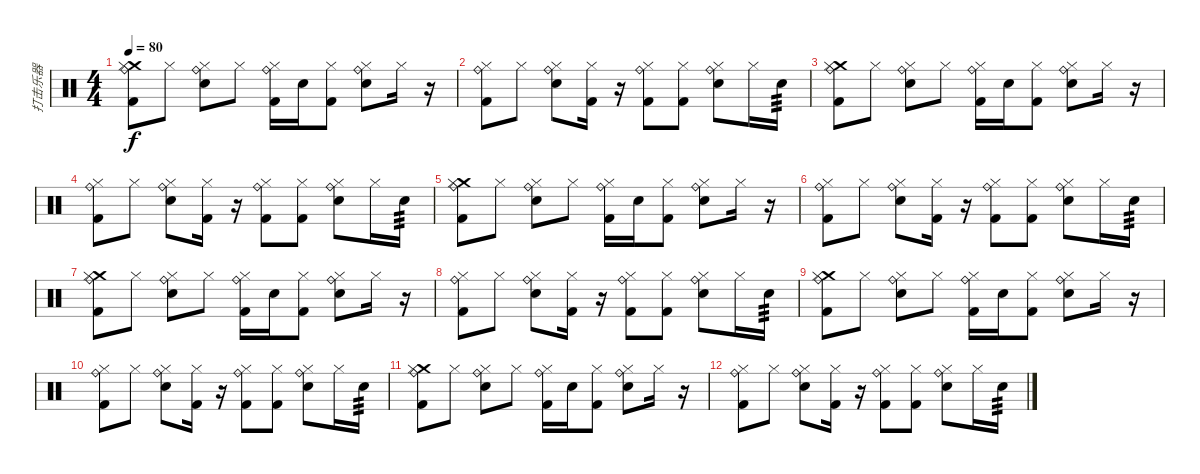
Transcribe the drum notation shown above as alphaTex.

\track ("打击乐器" "打击乐器") {instrument percussion}
\staff {score}
\articulation defaults
\ts (4 4)
\tempo 80
\clef neutral
\ks c
("Crash medium (hit)" "Ride (bell)" "Hi-Hat (closed)" "Kick (hit) 2").8{dy f} "Hi-Hat (closed)".8 ("Ride (bell)" "Hi-Hat (closed)" "Electric Snare (hit)").8 "Hi-Hat (closed)".8 ("Ride (bell)" "Hi-Hat (closed)" "Kick (hit) 2").16 "Electric Snare (hit)".16 ("Hi-Hat (closed)" "Kick (hit) 2").8 ("Ride (bell)" "Hi-Hat (closed)" "Electric Snare (hit)").8 "Hi-Hat (closed)".16 r.16 |
("Ride (bell)" "Hi-Hat (closed)" "Kick (hit) 2").8 "Hi-Hat (closed)".8 ("Ride (bell)" "Hi-Hat (closed)" "Electric Snare (hit)").8 ("Hi-Hat (closed)" "Kick (hit) 2").16 r.16 ("Ride (bell)" "Hi-Hat (closed)" "Kick (hit) 2").8 ("Hi-Hat (closed)" "Kick (hit) 2").8 ("Ride (bell)" "Hi-Hat (closed)" "Electric Snare (hit)").8 "Hi-Hat (closed)".16 "Electric Snare (hit)".16{tp 3} |
("Crash medium (hit)" "Ride (bell)" "Hi-Hat (closed)" "Kick (hit) 2").8 "Hi-Hat (closed)".8 ("Ride (bell)" "Hi-Hat (closed)" "Electric Snare (hit)").8 "Hi-Hat (closed)".8 ("Ride (bell)" "Hi-Hat (closed)" "Kick (hit) 2").16 "Electric Snare (hit)".16 ("Hi-Hat (closed)" "Kick (hit) 2").8 ("Ride (bell)" "Hi-Hat (closed)" "Electric Snare (hit)").8 "Hi-Hat (closed)".16 r.16 |
("Ride (bell)" "Hi-Hat (closed)" "Kick (hit) 2").8 "Hi-Hat (closed)".8 ("Ride (bell)" "Hi-Hat (closed)" "Electric Snare (hit)").8 ("Hi-Hat (closed)" "Kick (hit) 2").16 r.16 ("Ride (bell)" "Hi-Hat (closed)" "Kick (hit) 2").8 ("Hi-Hat (closed)" "Kick (hit) 2").8 ("Ride (bell)" "Hi-Hat (closed)" "Electric Snare (hit)").8 "Hi-Hat (closed)".16 "Electric Snare (hit)".16{tp 3} |
("Crash medium (hit)" "Ride (bell)" "Hi-Hat (closed)" "Kick (hit) 2").8 "Hi-Hat (closed)".8 ("Ride (bell)" "Hi-Hat (closed)" "Electric Snare (hit)").8 "Hi-Hat (closed)".8 ("Ride (bell)" "Hi-Hat (closed)" "Kick (hit) 2").16 "Electric Snare (hit)".16 ("Hi-Hat (closed)" "Kick (hit) 2").8 ("Ride (bell)" "Hi-Hat (closed)" "Electric Snare (hit)").8 "Hi-Hat (closed)".16 r.16 |
("Ride (bell)" "Hi-Hat (closed)" "Kick (hit) 2").8 "Hi-Hat (closed)".8 ("Ride (bell)" "Hi-Hat (closed)" "Electric Snare (hit)").8 ("Hi-Hat (closed)" "Kick (hit) 2").16 r.16 ("Ride (bell)" "Hi-Hat (closed)" "Kick (hit) 2").8 ("Hi-Hat (closed)" "Kick (hit) 2").8 ("Ride (bell)" "Hi-Hat (closed)" "Electric Snare (hit)").8 "Hi-Hat (closed)".16 "Electric Snare (hit)".16{tp 3} |
("Crash medium (hit)" "Ride (bell)" "Hi-Hat (closed)" "Kick (hit) 2").8 "Hi-Hat (closed)".8 ("Ride (bell)" "Hi-Hat (closed)" "Electric Snare (hit)").8 "Hi-Hat (closed)".8 ("Ride (bell)" "Hi-Hat (closed)" "Kick (hit) 2").16 "Electric Snare (hit)".16 ("Hi-Hat (closed)" "Kick (hit) 2").8 ("Ride (bell)" "Hi-Hat (closed)" "Electric Snare (hit)").8 "Hi-Hat (closed)".16 r.16 |
("Ride (bell)" "Hi-Hat (closed)" "Kick (hit) 2").8{volume 10} "Hi-Hat (closed)".8 ("Ride (bell)" "Hi-Hat (closed)" "Electric Snare (hit)").8 ("Hi-Hat (closed)" "Kick (hit) 2").16 r.16 ("Ride (bell)" "Hi-Hat (closed)" "Kick (hit) 2").8 ("Hi-Hat (closed)" "Kick (hit) 2").8 ("Ride (bell)" "Hi-Hat (closed)" "Electric Snare (hit)").8 "Hi-Hat (closed)".16 "Electric Snare (hit)".16{tp 3} |
("Crash medium (hit)" "Ride (bell)" "Hi-Hat (closed)" "Kick (hit) 2").8 "Hi-Hat (closed)".8 ("Ride (bell)" "Hi-Hat (closed)" "Electric Snare (hit)").8 "Hi-Hat (closed)".8 ("Ride (bell)" "Hi-Hat (closed)" "Kick (hit) 2").16 "Electric Snare (hit)".16 ("Hi-Hat (closed)" "Kick (hit) 2").8 ("Ride (bell)" "Hi-Hat (closed)" "Electric Snare (hit)").8 "Hi-Hat (closed)".16 r.16 |
("Ride (bell)" "Hi-Hat (closed)" "Kick (hit) 2").8 "Hi-Hat (closed)".8 ("Ride (bell)" "Hi-Hat (closed)" "Electric Snare (hit)").8 ("Hi-Hat (closed)" "Kick (hit) 2").16 r.16 ("Ride (bell)" "Hi-Hat (closed)" "Kick (hit) 2").8 ("Hi-Hat (closed)" "Kick (hit) 2").8 ("Ride (bell)" "Hi-Hat (closed)" "Electric Snare (hit)").8 "Hi-Hat (closed)".16 "Electric Snare (hit)".16{tp 3} |
("Crash medium (hit)" "Ride (bell)" "Hi-Hat (closed)" "Kick (hit) 2").8{volume 3 balance 3} "Hi-Hat (closed)".8 ("Ride (bell)" "Hi-Hat (closed)" "Electric Snare (hit)").8 "Hi-Hat (closed)".8 ("Ride (bell)" "Hi-Hat (closed)" "Kick (hit) 2").16 "Electric Snare (hit)".16 ("Hi-Hat (closed)" "Kick (hit) 2").8 ("Ride (bell)" "Hi-Hat (closed)" "Electric Snare (hit)").8 "Hi-Hat (closed)".16 r.16 |
("Ride (bell)" "Hi-Hat (closed)" "Kick (hit) 2").8 "Hi-Hat (closed)".8 ("Ride (bell)" "Hi-Hat (closed)" "Electric Snare (hit)").8 ("Hi-Hat (closed)" "Kick (hit) 2").16 r.16 ("Ride (bell)" "Hi-Hat (closed)" "Kick (hit) 2").8 ("Hi-Hat (closed)" "Kick (hit) 2").8 ("Ride (bell)" "Hi-Hat (closed)" "Electric Snare (hit)").8 "Hi-Hat (closed)".16 "Electric Snare (hit)".16{tp 3}
